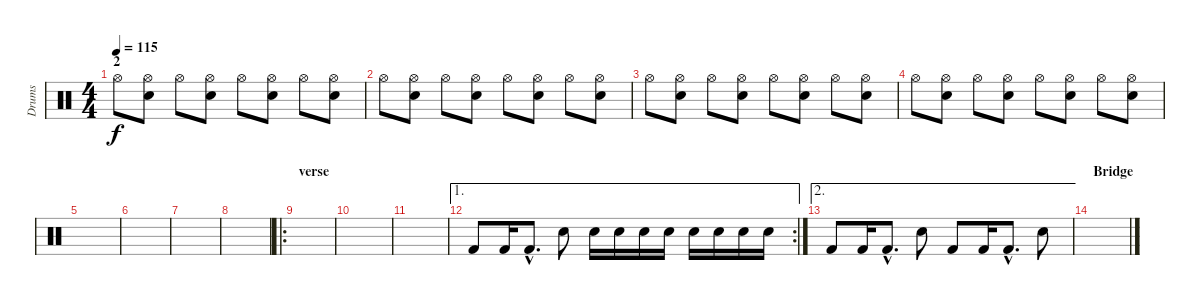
\track ("Drums" "Drums") {instrument percussion}
\staff {score}
\articulation defaults
\ts (4 4)
\section ("" "2")
\tempo 115
\clef neutral
\ks c "Hi-Hat (open)".8{dy f}
("Hi-Hat (open)" "Snare (hit) 2").8 "Hi-Hat (open)".8 ("Hi-Hat (open)" "Snare (hit) 2").8 "Hi-Hat (open)".8 ("Hi-Hat (open)" "Snare (hit) 2").8 "Hi-Hat (open)".8 ("Hi-Hat (open)" "Snare (hit) 2").8 |
"Hi-Hat (open)".8 ("Hi-Hat (open)" "Snare (hit) 2").8 "Hi-Hat (open)".8 ("Hi-Hat (open)" "Snare (hit) 2").8 "Hi-Hat (open)".8 ("Hi-Hat (open)" "Snare (hit) 2").8 "Hi-Hat (open)".8 ("Hi-Hat (open)" "Snare (hit) 2").8 |
"Hi-Hat (open)".8 ("Hi-Hat (open)" "Snare (hit) 2").8 "Hi-Hat (open)".8 ("Hi-Hat (open)" "Snare (hit) 2").8 "Hi-Hat (open)".8 ("Hi-Hat (open)" "Snare (hit) 2").8 "Hi-Hat (open)".8 ("Hi-Hat (open)" "Snare (hit) 2").8 |
"Hi-Hat (open)".8 ("Hi-Hat (open)" "Snare (hit) 2").8 "Hi-Hat (open)".8 ("Hi-Hat (open)" "Snare (hit) 2").8 "Hi-Hat (open)".8 ("Hi-Hat (open)" "Snare (hit) 2").8 "Hi-Hat (open)".8 ("Hi-Hat (open)" "Snare (hit) 2").8 |
\section ("" "")
|
|
|
|
\ro
\section ("" "verse")
|
|
|
\ae 1
\rc 2 "Kick (hit) 2".8 "Kick (hit) 2".16 "Kick (hit) 2"{hac}.8{d} "Snare (hit) 2".8 "Snare (hit) 2".16 "Snare (hit) 2".16 "Snare (hit) 2".16 "Snare (hit) 2".16 "Snare (hit) 2".16 "Snare (hit) 2".16 "Snare (hit) 2".16 "Snare (hit) 2".16
|
\ae 2 "Kick (hit) 2".8 "Kick (hit) 2".16 "Kick (hit) 2"{hac}.8{d} "Snare (hit) 2".8 "Kick (hit) 2".8 "Kick (hit) 2".16 "Kick (hit) 2"{hac}.8{d} "Snare (hit) 2".8
|
\section ("" "Bridge")
